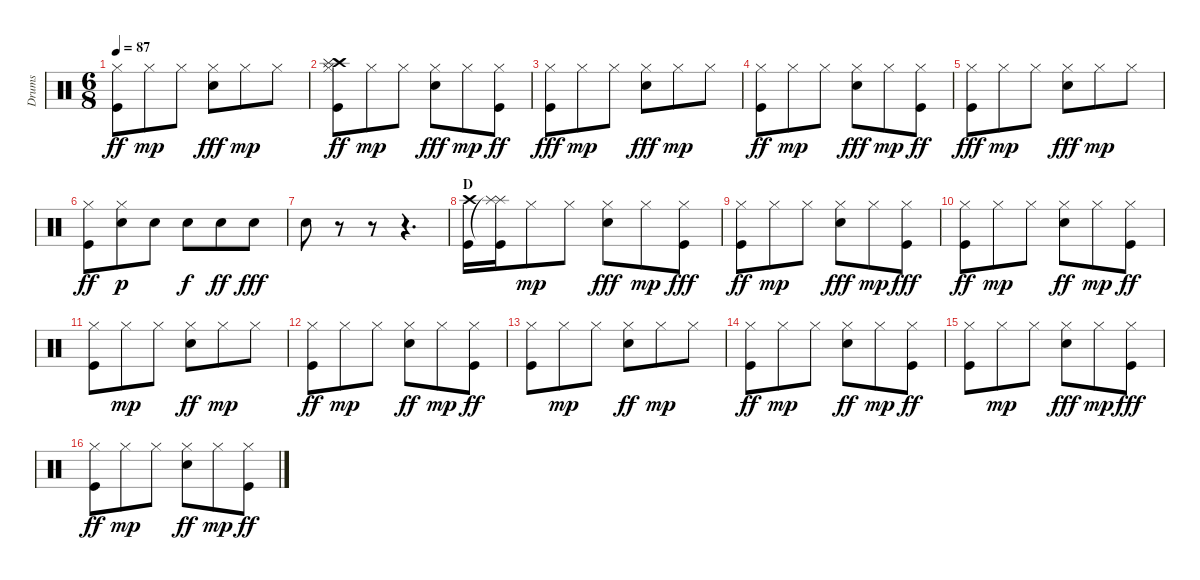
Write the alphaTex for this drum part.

\track ("Drums" "Drums") {instrument percussion}
\staff {score}
\articulation defaults
\ts (6 8)
\tempo 87
\clef neutral
\ks c
("Hi-Hat (closed)" "Kick (hit)").8{dy ff} "Hi-Hat (closed)".8{dy mp} "Hi-Hat (closed)".8 ("Hi-Hat (closed)" "Snare (hit) 2").8{dy fff} "Hi-Hat (closed)".8{dy mp} "Hi-Hat (closed)".8 |
("Hi-Hat (closed)" "Crash high (hit)" "Splash (hit)" "Kick (hit)").8{dy ff} "Hi-Hat (closed)".8{dy mp} "Hi-Hat (closed)".8 ("Hi-Hat (closed)" "Snare (hit) 2").8{dy fff} "Hi-Hat (closed)".8{dy mp} ("Hi-Hat (closed)" "Kick (hit)").8{dy ff} |
("Hi-Hat (closed)" "Kick (hit)").8{dy fff} "Hi-Hat (closed)".8{dy mp} "Hi-Hat (closed)".8 ("Hi-Hat (closed)" "Snare (hit) 2").8{dy fff} "Hi-Hat (closed)".8{dy mp} "Hi-Hat (closed)".8 |
("Hi-Hat (closed)" "Kick (hit)").8{dy ff} "Hi-Hat (closed)".8{dy mp} "Hi-Hat (closed)".8 ("Hi-Hat (closed)" "Snare (hit) 2").8{dy fff} "Hi-Hat (closed)".8{dy mp} ("Hi-Hat (closed)" "Kick (hit)").8{dy ff} |
("Hi-Hat (closed)" "Kick (hit)").8{dy fff} "Hi-Hat (closed)".8{dy mp} "Hi-Hat (closed)".8 ("Hi-Hat (closed)" "Snare (hit) 2").8{dy fff} "Hi-Hat (closed)".8{dy mp} "Hi-Hat (closed)".8 |
("Hi-Hat (closed)" "Kick (hit)").8{dy ff} ("Hi-Hat (closed)" "Snare (hit) 2").8{dy p} "Snare (hit) 2".8 "Snare (hit) 2".8{dy f} "Snare (hit) 2".8{dy ff} "Snare (hit) 2".8{dy fff} |
"Snare (hit) 2".8 r.8 r.8 r.4{d} |
\section ("" "D")
("Crash high (hit)" "Kick (hit)").16 ("Splash (hit)" "Splash (hit)"{t} "Kick (hit)").16 "Hi-Hat (closed)".8{dy mp} "Hi-Hat (closed)".8 ("Hi-Hat (closed)" "Snare (hit) 2").8{dy fff} "Hi-Hat (closed)".8{dy mp} ("Hi-Hat (closed)" "Kick (hit)").8{dy fff} |
("Hi-Hat (closed)" "Kick (hit)").8{dy ff} "Hi-Hat (closed)".8{dy mp} "Hi-Hat (closed)".8 ("Hi-Hat (closed)" "Snare (hit) 2").8{dy fff} "Hi-Hat (closed)".8{dy mp} ("Hi-Hat (closed)" "Kick (hit)").8{dy fff} |
("Hi-Hat (closed)" "Kick (hit)").8{dy ff} "Hi-Hat (closed)".8{dy mp} "Hi-Hat (closed)".8 ("Hi-Hat (closed)" "Snare (hit) 2").8{dy ff} "Hi-Hat (closed)".8{dy mp} ("Hi-Hat (closed)" "Kick (hit)").8{dy ff} |
("Hi-Hat (closed)" "Kick (hit)").8 "Hi-Hat (closed)".8{dy mp} "Hi-Hat (closed)".8 ("Hi-Hat (closed)" "Snare (hit) 2").8{dy ff} "Hi-Hat (closed)".8{dy mp} "Hi-Hat (closed)".8 |
("Hi-Hat (closed)" "Kick (hit)").8{dy ff} "Hi-Hat (closed)".8{dy mp} "Hi-Hat (closed)".8 ("Hi-Hat (closed)" "Snare (hit) 2").8{dy ff} "Hi-Hat (closed)".8{dy mp} ("Hi-Hat (closed)" "Kick (hit)").8{dy ff} |
("Hi-Hat (closed)" "Kick (hit)").8 "Hi-Hat (closed)".8{dy mp} "Hi-Hat (closed)".8 ("Hi-Hat (closed)" "Snare (hit) 2").8{dy ff} "Hi-Hat (closed)".8{dy mp} "Hi-Hat (closed)".8 |
("Hi-Hat (closed)" "Kick (hit)").8{dy ff} "Hi-Hat (closed)".8{dy mp} "Hi-Hat (closed)".8 ("Hi-Hat (closed)" "Snare (hit) 2").8{dy ff} "Hi-Hat (closed)".8{dy mp} ("Hi-Hat (closed)" "Kick (hit)").8{dy ff} |
("Hi-Hat (closed)" "Kick (hit)").8 "Hi-Hat (closed)".8{dy mp} "Hi-Hat (closed)".8 ("Hi-Hat (closed)" "Snare (hit) 2").8{dy fff} "Hi-Hat (closed)".8{dy mp} ("Hi-Hat (closed)" "Kick (hit)").8{dy fff} |
("Hi-Hat (closed)" "Kick (hit)").8{dy ff} "Hi-Hat (closed)".8{dy mp} "Hi-Hat (closed)".8 ("Hi-Hat (closed)" "Snare (hit) 2").8{dy ff} "Hi-Hat (closed)".8{dy mp} ("Hi-Hat (closed)" "Kick (hit)").8{dy ff}
